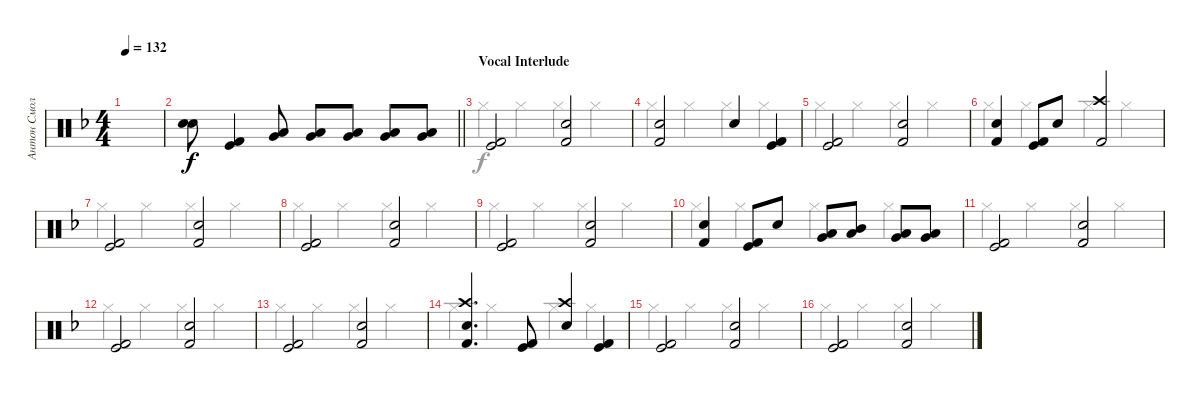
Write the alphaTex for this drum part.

\track ("Антон Смольянин" "Антон Смол") {instrument percussion}
\staff {score}
\articulation defaults
\voice
\ts (4 4)
\tempo 132
\clef neutral
\ks f
|
\barLineRight lightlight
("Snare (hit) 2" "Snare (hit) 2").8 ("Kick (hit) 2" "Kick (hit)").4 ("Very Low Tom (hit)" "Low Floor Tom (hit)").8 ("Low Floor Tom (hit)" "Very Low Tom (hit)").8 ("Very Low Tom (hit)" "Low Tom (hit)").8 ("Low Floor Tom (hit)" "Very Low Tom (hit)").8 ("Very Low Tom (hit)" "Low Floor Tom (hit)").8 |
\section ("" "Vocal Interlude")
("Kick (hit) 2" "Kick (hit)").2 ("Kick (hit) 2" "Snare (hit) 2").2 |
("Kick (hit) 2" "Snare (hit) 2").2 "Snare (hit) 2".4 ("Kick (hit) 2" "Kick (hit)").4 |
("Kick (hit) 2" "Kick (hit)").2 ("Kick (hit) 2" "Snare (hit) 2").2 |
("Kick (hit) 2" "Snare (hit) 2").4 ("Kick (hit) 2" "Kick (hit)").8 "Snare (hit) 2".8 ("Kick (hit) 2" "Crash high (hit)").2 |
("Kick (hit) 2" "Kick (hit)").2 ("Kick (hit) 2" "Snare (hit) 2").2 |
("Kick (hit) 2" "Kick (hit)").2 ("Kick (hit) 2" "Snare (hit) 2").2 |
("Kick (hit) 2" "Kick (hit)").2 ("Kick (hit) 2" "Snare (hit) 2").2 |
("Kick (hit) 2" "Snare (hit) 2").4 ("Kick (hit) 2" "Kick (hit)").8 "Snare (hit) 2".8 ("Very Low Tom (hit)" "Low Tom (hit)").8 ("Low Tom (hit)" "Mid Tom (hit)").8 ("Low Tom (hit)" "Very Low Tom (hit)").8 ("Low Floor Tom (hit)" "Very Low Tom (hit)").8 |
("Kick (hit) 2" "Kick (hit)").2 ("Kick (hit) 2" "Snare (hit) 2").2 |
("Kick (hit) 2" "Kick (hit)").2 ("Kick (hit) 2" "Snare (hit) 2").2 |
("Kick (hit) 2" "Kick (hit)").2 ("Kick (hit) 2" "Snare (hit) 2").2 |
("Kick (hit) 2" "Snare (hit) 2" "Crash high (hit)").4{d} ("Kick (hit) 2" "Kick (hit)").8 ("Snare (hit) 2" "Crash high (hit)").4 ("Kick (hit) 2" "Kick (hit)").4 |
("Kick (hit) 2" "Kick (hit)").2 ("Kick (hit) 2" "Snare (hit) 2").2 |
("Kick (hit) 2" "Kick (hit)").2 ("Kick (hit) 2" "Snare (hit) 2").2
\voice
\clef neutral
\ottava regular
\simile none
\ks f
|
\barLineRight lightlight
|
"Hi-Hat (closed)".4 "Hi-Hat (closed)".4 "Hi-Hat (closed)".4 "Hi-Hat (closed)".4 |
"Hi-Hat (closed)".4 "Hi-Hat (closed)".4 "Hi-Hat (closed)".4 "Hi-Hat (closed)".4 |
"Hi-Hat (closed)".4 "Hi-Hat (closed)".4 "Hi-Hat (closed)".4 "Hi-Hat (closed)".4 |
"Hi-Hat (closed)".4 "Hi-Hat (closed)".4 "Hi-Hat (closed)".4 "Hi-Hat (closed)".4 |
"Hi-Hat (closed)".4 "Hi-Hat (closed)".4 "Hi-Hat (closed)".4 "Hi-Hat (closed)".4 |
"Hi-Hat (closed)".4 "Hi-Hat (closed)".4 "Hi-Hat (closed)".4 "Hi-Hat (closed)".4 |
"Hi-Hat (closed)".4 "Hi-Hat (closed)".4 "Hi-Hat (closed)".4 "Hi-Hat (closed)".4 |
"Hi-Hat (closed)".4 "Hi-Hat (closed)".4 "Hi-Hat (closed)".4 "Hi-Hat (closed)".4 |
"Hi-Hat (closed)".4 "Hi-Hat (closed)".4 "Hi-Hat (closed)".4 "Hi-Hat (closed)".4 |
"Hi-Hat (closed)".4 "Hi-Hat (closed)".4 "Hi-Hat (closed)".4 "Hi-Hat (closed)".4 |
"Hi-Hat (closed)".4 "Hi-Hat (closed)".4 "Hi-Hat (closed)".4 "Hi-Hat (closed)".4 |
"Hi-Hat (closed)".4 "Hi-Hat (closed)".4 "Hi-Hat (closed)".4 "Hi-Hat (closed)".4 |
"Hi-Hat (closed)".4 "Hi-Hat (closed)".4 "Hi-Hat (closed)".4 "Hi-Hat (closed)".4 |
"Hi-Hat (closed)".4 "Hi-Hat (closed)".4 "Hi-Hat (closed)".4 "Hi-Hat (closed)".4
